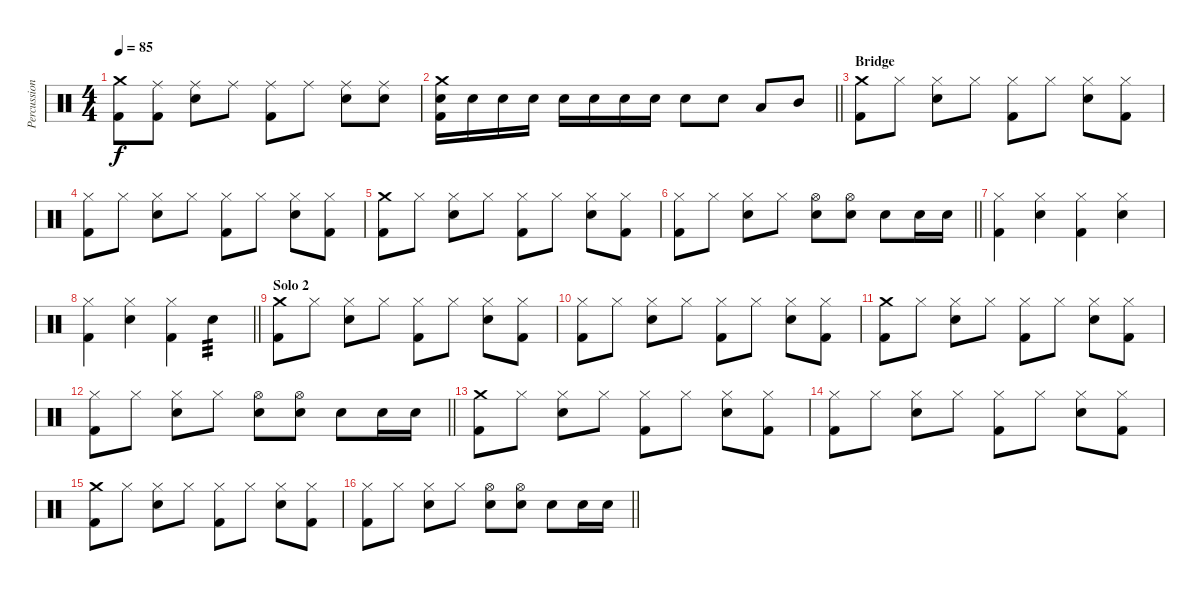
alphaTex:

\track ("Percussion" "Percussion") {instrument percussion}
\staff {score}
\articulation defaults
\ts (4 4)
\tempo 85
\clef neutral
\ks c
("Crash medium (hit)" "Kick (hit) 2").8{dy f} ("Ride (middle)" "Kick (hit) 2").8 ("Ride (middle)" "Electric Snare (hit)").8 "Ride (middle)".8 ("Ride (middle)" "Kick (hit) 2").8 "Ride (middle)".8 ("Ride (middle)" "Electric Snare (hit)").8 ("Ride (middle)" "Electric Snare (hit)").8 |
\barLineRight lightlight
("Crash medium (hit)" "Electric Snare (hit)" "Kick (hit) 2").16 "Electric Snare (hit)".16 "Electric Snare (hit)".16 "Electric Snare (hit)".16 "Electric Snare (hit)".16 "Electric Snare (hit)".16 "Electric Snare (hit)".16 "Electric Snare (hit)".16 "Electric Snare (hit)".8 "Electric Snare (hit)".8 "Low Tom (hit)".8 "Mid Tom (hit)".8 |
\section ("" "Bridge")
("Crash medium (hit)" "Kick (hit) 2").8 "Hi-Hat (closed)".8 ("Hi-Hat (closed)" "Electric Snare (hit)").8 "Hi-Hat (closed)".8 ("Hi-Hat (closed)" "Kick (hit) 2").8 "Hi-Hat (closed)".8 ("Hi-Hat (closed)" "Electric Snare (hit)").8 ("Hi-Hat (closed)" "Kick (hit) 2").8 |
("Hi-Hat (closed)" "Kick (hit) 2").8 "Hi-Hat (closed)".8 ("Hi-Hat (closed)" "Electric Snare (hit)").8 "Hi-Hat (closed)".8 ("Hi-Hat (closed)" "Kick (hit) 2").8 "Hi-Hat (closed)".8 ("Hi-Hat (closed)" "Electric Snare (hit)").8 ("Hi-Hat (closed)" "Kick (hit) 2").8 |
("Crash medium (hit)" "Kick (hit) 2").8 "Hi-Hat (closed)".8 ("Hi-Hat (closed)" "Electric Snare (hit)").8 "Hi-Hat (closed)".8 ("Hi-Hat (closed)" "Kick (hit) 2").8 "Hi-Hat (closed)".8 ("Hi-Hat (closed)" "Electric Snare (hit)").8 ("Hi-Hat (closed)" "Kick (hit) 2").8 |
\barLineRight lightlight
("Hi-Hat (closed)" "Kick (hit) 2").8 "Hi-Hat (closed)".8 ("Hi-Hat (closed)" "Electric Snare (hit)").8 "Hi-Hat (closed)".8 ("Hi-Hat (open)" "Electric Snare (hit)").8 ("Hi-Hat (open)" "Electric Snare (hit)").8 "Electric Snare (hit)".8 "Electric Snare (hit)".16 "Electric Snare (hit)".16 |
("Hi-Hat (closed)" "Kick (hit) 2").4 ("Hi-Hat (closed)" "Electric Snare (hit)").4 ("Hi-Hat (closed)" "Kick (hit) 2").4 ("Hi-Hat (closed)" "Electric Snare (hit)").4 |
\barLineRight lightlight
("Hi-Hat (closed)" "Kick (hit) 2").4 ("Hi-Hat (closed)" "Electric Snare (hit)").4 ("Hi-Hat (closed)" "Kick (hit) 2").4 "Electric Snare (hit)".4{tp 3} |
\section ("" "Solo 2")
("Crash medium (hit)" "Kick (hit) 2").8 "Hi-Hat (closed)".8 ("Hi-Hat (closed)" "Electric Snare (hit)").8 "Hi-Hat (closed)".8 ("Hi-Hat (closed)" "Kick (hit) 2").8 "Hi-Hat (closed)".8 ("Hi-Hat (closed)" "Electric Snare (hit)").8 ("Hi-Hat (closed)" "Kick (hit) 2").8 |
("Hi-Hat (closed)" "Kick (hit) 2").8 "Hi-Hat (closed)".8 ("Hi-Hat (closed)" "Electric Snare (hit)").8 "Hi-Hat (closed)".8 ("Hi-Hat (closed)" "Kick (hit) 2").8 "Hi-Hat (closed)".8 ("Hi-Hat (closed)" "Electric Snare (hit)").8 ("Hi-Hat (closed)" "Kick (hit) 2").8 |
("Crash medium (hit)" "Kick (hit) 2").8 "Hi-Hat (closed)".8 ("Hi-Hat (closed)" "Electric Snare (hit)").8 "Hi-Hat (closed)".8 ("Hi-Hat (closed)" "Kick (hit) 2").8 "Hi-Hat (closed)".8 ("Hi-Hat (closed)" "Electric Snare (hit)").8 ("Hi-Hat (closed)" "Kick (hit) 2").8 |
\barLineRight lightlight
("Hi-Hat (closed)" "Kick (hit) 2").8 "Hi-Hat (closed)".8 ("Hi-Hat (closed)" "Electric Snare (hit)").8 "Hi-Hat (closed)".8 ("Hi-Hat (open)" "Electric Snare (hit)").8 ("Hi-Hat (open)" "Electric Snare (hit)").8 "Electric Snare (hit)".8 "Electric Snare (hit)".16 "Electric Snare (hit)".16 |
("Crash medium (hit)" "Kick (hit) 2").8 "Hi-Hat (closed)".8 ("Hi-Hat (closed)" "Electric Snare (hit)").8 "Hi-Hat (closed)".8 ("Hi-Hat (closed)" "Kick (hit) 2").8 "Hi-Hat (closed)".8 ("Hi-Hat (closed)" "Electric Snare (hit)").8 ("Hi-Hat (closed)" "Kick (hit) 2").8 |
("Hi-Hat (closed)" "Kick (hit) 2").8 "Hi-Hat (closed)".8 ("Hi-Hat (closed)" "Electric Snare (hit)").8 "Hi-Hat (closed)".8 ("Hi-Hat (closed)" "Kick (hit) 2").8 "Hi-Hat (closed)".8 ("Hi-Hat (closed)" "Electric Snare (hit)").8 ("Hi-Hat (closed)" "Kick (hit) 2").8 |
("Crash medium (hit)" "Kick (hit) 2").8 "Hi-Hat (closed)".8 ("Hi-Hat (closed)" "Electric Snare (hit)").8 "Hi-Hat (closed)".8 ("Hi-Hat (closed)" "Kick (hit) 2").8 "Hi-Hat (closed)".8 ("Hi-Hat (closed)" "Electric Snare (hit)").8 ("Hi-Hat (closed)" "Kick (hit) 2").8 |
\barLineRight lightlight
("Hi-Hat (closed)" "Kick (hit) 2").8 "Hi-Hat (closed)".8 ("Hi-Hat (closed)" "Electric Snare (hit)").8 "Hi-Hat (closed)".8 ("Hi-Hat (open)" "Electric Snare (hit)").8 ("Hi-Hat (open)" "Electric Snare (hit)").8 "Electric Snare (hit)".8 "Electric Snare (hit)".16 "Electric Snare (hit)".16
